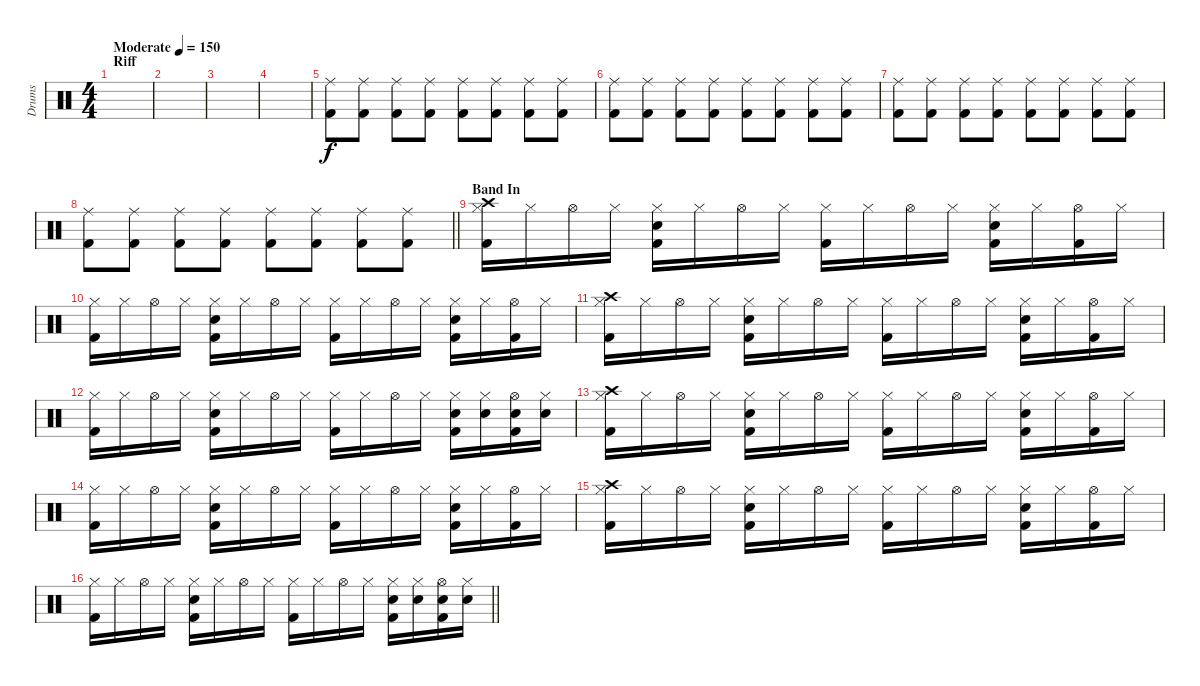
\track ("Drums" "Drums") {instrument percussion}
\staff {score}
\articulation defaults
\ts (4 4)
\section ("" "Riff")
\tempo (150 "Moderate")
\clef neutral
\ks c
|
|
|
|
("Ride (middle)" "Kick (hit) 2").8 ("Ride (middle)" "Kick (hit) 2").8 ("Ride (middle)" "Kick (hit) 2").8 ("Ride (middle)" "Kick (hit) 2").8 ("Ride (middle)" "Kick (hit) 2").8 ("Ride (middle)" "Kick (hit) 2").8 ("Ride (middle)" "Kick (hit) 2").8 ("Ride (middle)" "Kick (hit) 2").8 |
("Ride (middle)" "Kick (hit) 2").8 ("Ride (middle)" "Kick (hit) 2").8 ("Ride (middle)" "Kick (hit) 2").8 ("Ride (middle)" "Kick (hit) 2").8 ("Ride (middle)" "Kick (hit) 2").8 ("Ride (middle)" "Kick (hit) 2").8 ("Ride (middle)" "Kick (hit) 2").8 ("Ride (middle)" "Kick (hit) 2").8 |
("Ride (middle)" "Kick (hit) 2").8 ("Ride (middle)" "Kick (hit) 2").8 ("Ride (middle)" "Kick (hit) 2").8 ("Ride (middle)" "Kick (hit) 2").8 ("Ride (middle)" "Kick (hit) 2").8 ("Ride (middle)" "Kick (hit) 2").8 ("Ride (middle)" "Kick (hit) 2").8 ("Ride (middle)" "Kick (hit) 2").8 |
\barLineRight lightlight
("Ride (middle)" "Kick (hit) 2").8 ("Ride (middle)" "Kick (hit) 2").8 ("Ride (middle)" "Kick (hit) 2").8 ("Ride (middle)" "Kick (hit) 2").8 ("Ride (middle)" "Kick (hit) 2").8 ("Ride (middle)" "Kick (hit) 2").8 ("Ride (middle)" "Kick (hit) 2").8 ("Ride (middle)" "Kick (hit) 2").8 |
\section ("" "Band In")
("Crash high (hit)" "Hi-Hat (closed)" "Kick (hit) 2").16 "Hi-Hat (closed)".16 "Hi-Hat (open)".16 "Hi-Hat (closed)".16 ("Hi-Hat (closed)" "Electric Snare (hit)" "Kick (hit) 2").16 "Hi-Hat (closed)".16 "Hi-Hat (open)".16 "Hi-Hat (closed)".16 ("Hi-Hat (closed)" "Kick (hit) 2").16 "Hi-Hat (closed)".16 "Hi-Hat (open)".16 "Hi-Hat (closed)".16 ("Hi-Hat (closed)" "Electric Snare (hit)" "Kick (hit) 2").16 "Hi-Hat (closed)".16 ("Hi-Hat (open)" "Kick (hit) 2").16 "Hi-Hat (closed)".16 |
("Hi-Hat (closed)" "Kick (hit) 2").16 "Hi-Hat (closed)".16 "Hi-Hat (open)".16 "Hi-Hat (closed)".16 ("Hi-Hat (closed)" "Electric Snare (hit)" "Kick (hit) 2").16 "Hi-Hat (closed)".16 "Hi-Hat (open)".16 "Hi-Hat (closed)".16 ("Hi-Hat (closed)" "Kick (hit) 2").16 "Hi-Hat (closed)".16 "Hi-Hat (open)".16 "Hi-Hat (closed)".16 ("Hi-Hat (closed)" "Electric Snare (hit)" "Kick (hit) 2").16 "Hi-Hat (closed)".16 ("Hi-Hat (open)" "Kick (hit) 2").16 "Hi-Hat (closed)".16 |
("Crash high (hit)" "Hi-Hat (closed)" "Kick (hit) 2").16 "Hi-Hat (closed)".16 "Hi-Hat (open)".16 "Hi-Hat (closed)".16 ("Hi-Hat (closed)" "Electric Snare (hit)" "Kick (hit) 2").16 "Hi-Hat (closed)".16 "Hi-Hat (open)".16 "Hi-Hat (closed)".16 ("Hi-Hat (closed)" "Kick (hit) 2").16 "Hi-Hat (closed)".16 "Hi-Hat (open)".16 "Hi-Hat (closed)".16 ("Hi-Hat (closed)" "Electric Snare (hit)" "Kick (hit) 2").16 "Hi-Hat (closed)".16 ("Hi-Hat (open)" "Kick (hit) 2").16 "Hi-Hat (closed)".16 |
("Hi-Hat (closed)" "Kick (hit) 2").16 "Hi-Hat (closed)".16 "Hi-Hat (open)".16 "Hi-Hat (closed)".16 ("Hi-Hat (closed)" "Electric Snare (hit)" "Kick (hit) 2").16 "Hi-Hat (closed)".16 "Hi-Hat (open)".16 "Hi-Hat (closed)".16 ("Hi-Hat (closed)" "Kick (hit) 2").16 "Hi-Hat (closed)".16 "Hi-Hat (open)".16 "Hi-Hat (closed)".16 ("Hi-Hat (closed)" "Electric Snare (hit)" "Kick (hit) 2").16 ("Hi-Hat (closed)" "Electric Snare (hit)").16 ("Hi-Hat (open)" "Electric Snare (hit)" "Kick (hit) 2").16 ("Hi-Hat (closed)" "Electric Snare (hit)").16 |
("Crash high (hit)" "Hi-Hat (closed)" "Kick (hit) 2").16 "Hi-Hat (closed)".16 "Hi-Hat (open)".16 "Hi-Hat (closed)".16 ("Hi-Hat (closed)" "Electric Snare (hit)" "Kick (hit) 2").16 "Hi-Hat (closed)".16 "Hi-Hat (open)".16 "Hi-Hat (closed)".16 ("Hi-Hat (closed)" "Kick (hit) 2").16 "Hi-Hat (closed)".16 "Hi-Hat (open)".16 "Hi-Hat (closed)".16 ("Hi-Hat (closed)" "Electric Snare (hit)" "Kick (hit) 2").16 "Hi-Hat (closed)".16 ("Hi-Hat (open)" "Kick (hit) 2").16 "Hi-Hat (closed)".16 |
("Hi-Hat (closed)" "Kick (hit) 2").16 "Hi-Hat (closed)".16 "Hi-Hat (open)".16 "Hi-Hat (closed)".16 ("Hi-Hat (closed)" "Electric Snare (hit)" "Kick (hit) 2").16 "Hi-Hat (closed)".16 "Hi-Hat (open)".16 "Hi-Hat (closed)".16 ("Hi-Hat (closed)" "Kick (hit) 2").16 "Hi-Hat (closed)".16 "Hi-Hat (open)".16 "Hi-Hat (closed)".16 ("Hi-Hat (closed)" "Electric Snare (hit)" "Kick (hit) 2").16 "Hi-Hat (closed)".16 ("Hi-Hat (open)" "Kick (hit) 2").16 "Hi-Hat (closed)".16 |
("Crash high (hit)" "Hi-Hat (closed)" "Kick (hit) 2").16 "Hi-Hat (closed)".16 "Hi-Hat (open)".16 "Hi-Hat (closed)".16 ("Hi-Hat (closed)" "Electric Snare (hit)" "Kick (hit) 2").16 "Hi-Hat (closed)".16 "Hi-Hat (open)".16 "Hi-Hat (closed)".16 ("Hi-Hat (closed)" "Kick (hit) 2").16 "Hi-Hat (closed)".16 "Hi-Hat (open)".16 "Hi-Hat (closed)".16 ("Hi-Hat (closed)" "Electric Snare (hit)" "Kick (hit) 2").16 "Hi-Hat (closed)".16 ("Hi-Hat (open)" "Kick (hit) 2").16 "Hi-Hat (closed)".16 |
\barLineRight lightlight
("Hi-Hat (closed)" "Kick (hit) 2").16 "Hi-Hat (closed)".16 "Hi-Hat (open)".16 "Hi-Hat (closed)".16 ("Hi-Hat (closed)" "Electric Snare (hit)" "Kick (hit) 2").16 "Hi-Hat (closed)".16 "Hi-Hat (open)".16 "Hi-Hat (closed)".16 ("Hi-Hat (closed)" "Kick (hit) 2").16 "Hi-Hat (closed)".16 "Hi-Hat (open)".16 "Hi-Hat (closed)".16 ("Hi-Hat (closed)" "Electric Snare (hit)" "Kick (hit) 2").16 ("Hi-Hat (closed)" "Electric Snare (hit)").16 ("Hi-Hat (open)" "Electric Snare (hit)" "Kick (hit) 2").16 ("Hi-Hat (closed)" "Electric Snare (hit)").16
